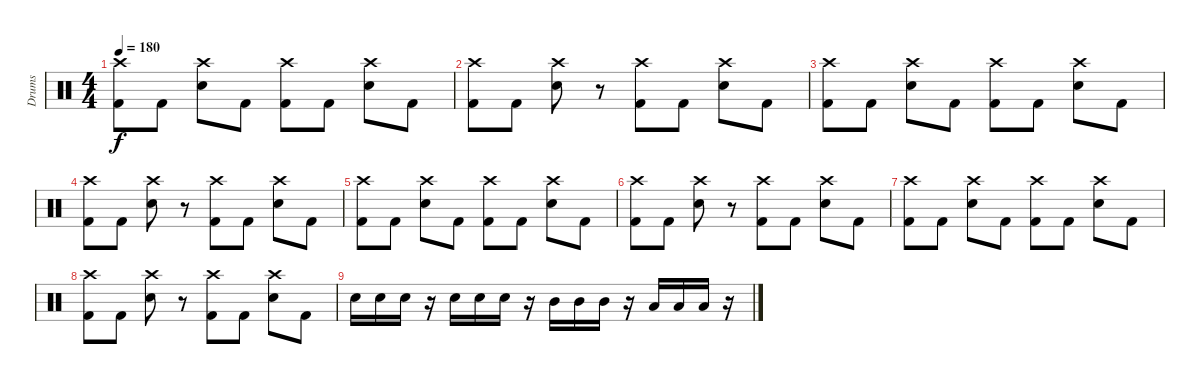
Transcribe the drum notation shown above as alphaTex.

\track ("Drums" "Drums") {instrument percussion}
\staff {score}
\articulation defaults
\ts (4 4)
\tempo 180
\clef neutral
\ks c
("Crash high (hit)" "Kick (hit) 2").8{dy f} "Kick (hit) 2".8 ("Crash high (hit)" "Electric Snare (hit)").8 "Kick (hit) 2".8 ("Crash high (hit)" "Kick (hit) 2").8 "Kick (hit) 2".8 ("Crash high (hit)" "Electric Snare (hit)").8 "Kick (hit) 2".8 |
("Crash high (hit)" "Kick (hit) 2").8 "Kick (hit) 2".8 ("Crash high (hit)" "Electric Snare (hit)").8 r.8 ("Crash high (hit)" "Kick (hit) 2").8 "Kick (hit) 2".8 ("Crash high (hit)" "Electric Snare (hit)").8 "Kick (hit) 2".8 |
("Crash high (hit)" "Kick (hit) 2").8 "Kick (hit) 2".8 ("Crash high (hit)" "Electric Snare (hit)").8 "Kick (hit) 2".8 ("Crash high (hit)" "Kick (hit) 2").8 "Kick (hit) 2".8 ("Crash high (hit)" "Electric Snare (hit)").8 "Kick (hit) 2".8 |
("Crash high (hit)" "Kick (hit) 2").8 "Kick (hit) 2".8 ("Crash high (hit)" "Electric Snare (hit)").8 r.8 ("Crash high (hit)" "Kick (hit) 2").8 "Kick (hit) 2".8 ("Crash high (hit)" "Electric Snare (hit)").8 "Kick (hit) 2".8 |
("Crash high (hit)" "Kick (hit) 2").8 "Kick (hit) 2".8 ("Crash high (hit)" "Electric Snare (hit)").8 "Kick (hit) 2".8 ("Crash high (hit)" "Kick (hit) 2").8 "Kick (hit) 2".8 ("Crash high (hit)" "Electric Snare (hit)").8 "Kick (hit) 2".8 |
("Crash high (hit)" "Kick (hit) 2").8 "Kick (hit) 2".8 ("Crash high (hit)" "Electric Snare (hit)").8 r.8 ("Crash high (hit)" "Kick (hit) 2").8 "Kick (hit) 2".8 ("Crash high (hit)" "Electric Snare (hit)").8 "Kick (hit) 2".8 |
("Crash high (hit)" "Kick (hit) 2").8 "Kick (hit) 2".8 ("Crash high (hit)" "Electric Snare (hit)").8 "Kick (hit) 2".8 ("Crash high (hit)" "Kick (hit) 2").8 "Kick (hit) 2".8 ("Crash high (hit)" "Electric Snare (hit)").8 "Kick (hit) 2".8 |
("Crash high (hit)" "Kick (hit) 2").8 "Kick (hit) 2".8 ("Crash high (hit)" "Electric Snare (hit)").8 r.8 ("Crash high (hit)" "Kick (hit) 2").8 "Kick (hit) 2".8 ("Crash high (hit)" "Electric Snare (hit)").8 "Kick (hit) 2".8 |
"Electric Snare (hit)".16 "Electric Snare (hit)".16 "Electric Snare (hit)".16 r.16 "Electric Snare (hit)".16 "Electric Snare (hit)".16 "Electric Snare (hit)".16 r.16 "Mid Tom (hit)".16 "Mid Tom (hit)".16 "Mid Tom (hit)".16 r.16 "Low Tom (hit)".16 "Low Tom (hit)".16 "Low Tom (hit)".16 r.16
